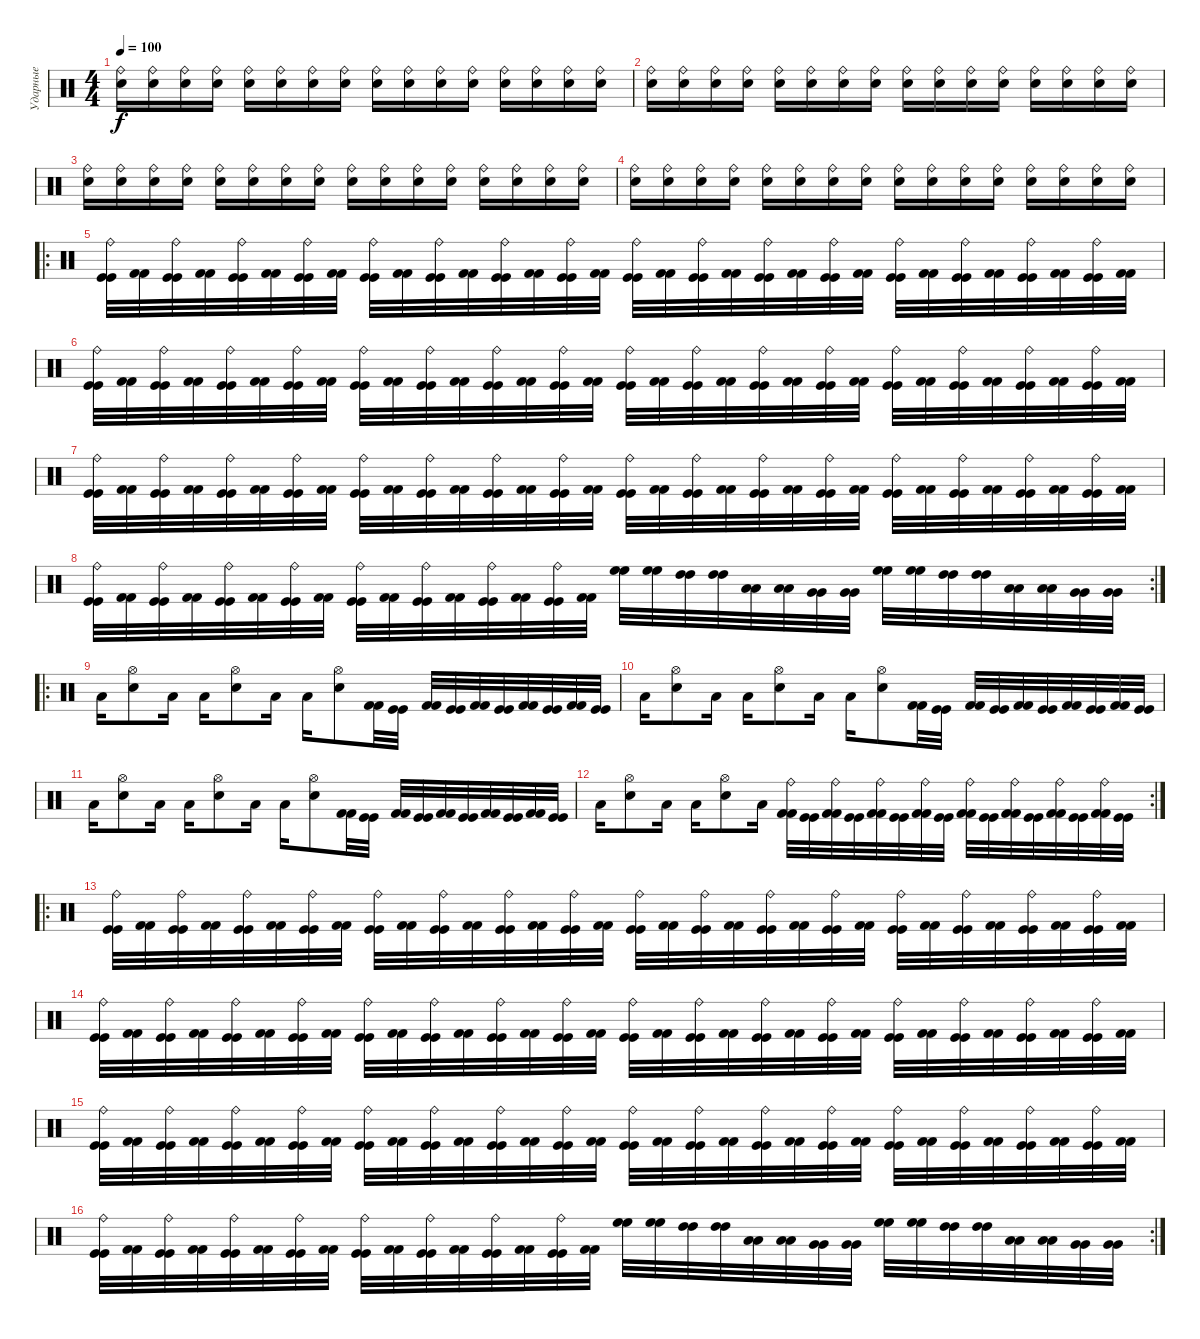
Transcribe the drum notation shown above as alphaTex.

\track ("Ударные" "Ударные") {instrument percussion}
\staff {score}
\articulation defaults
\ts (4 4)
\tempo 100
\clef neutral
\ks c
("Ride (bell)" "Electric Snare (hit)").16{dy f} ("Ride (bell)" "Electric Snare (hit)").16 ("Ride (bell)" "Electric Snare (hit)").16 ("Ride (bell)" "Electric Snare (hit)").16 ("Ride (bell)" "Electric Snare (hit)").16 ("Ride (bell)" "Electric Snare (hit)").16 ("Ride (bell)" "Electric Snare (hit)").16 ("Ride (bell)" "Electric Snare (hit)").16 ("Ride (bell)" "Electric Snare (hit)").16 ("Ride (bell)" "Electric Snare (hit)").16 ("Ride (bell)" "Electric Snare (hit)").16 ("Ride (bell)" "Electric Snare (hit)").16 ("Ride (bell)" "Electric Snare (hit)").16 ("Ride (bell)" "Electric Snare (hit)").16 ("Ride (bell)" "Electric Snare (hit)").16 ("Ride (bell)" "Electric Snare (hit)").16 |
("Ride (bell)" "Electric Snare (hit)").16 ("Ride (bell)" "Electric Snare (hit)").16 ("Ride (bell)" "Electric Snare (hit)").16 ("Ride (bell)" "Electric Snare (hit)").16 ("Ride (bell)" "Electric Snare (hit)").16 ("Ride (bell)" "Electric Snare (hit)").16 ("Ride (bell)" "Electric Snare (hit)").16 ("Ride (bell)" "Electric Snare (hit)").16 ("Ride (bell)" "Electric Snare (hit)").16 ("Ride (bell)" "Electric Snare (hit)").16 ("Ride (bell)" "Electric Snare (hit)").16 ("Ride (bell)" "Electric Snare (hit)").16 ("Ride (bell)" "Electric Snare (hit)").16 ("Ride (bell)" "Electric Snare (hit)").16 ("Ride (bell)" "Electric Snare (hit)").16 ("Ride (bell)" "Electric Snare (hit)").16 |
("Ride (bell)" "Electric Snare (hit)").16 ("Ride (bell)" "Electric Snare (hit)").16 ("Ride (bell)" "Electric Snare (hit)").16 ("Ride (bell)" "Electric Snare (hit)").16 ("Ride (bell)" "Electric Snare (hit)").16 ("Ride (bell)" "Electric Snare (hit)").16 ("Ride (bell)" "Electric Snare (hit)").16 ("Ride (bell)" "Electric Snare (hit)").16 ("Ride (bell)" "Electric Snare (hit)").16 ("Ride (bell)" "Electric Snare (hit)").16 ("Ride (bell)" "Electric Snare (hit)").16 ("Ride (bell)" "Electric Snare (hit)").16 ("Ride (bell)" "Electric Snare (hit)").16 ("Ride (bell)" "Electric Snare (hit)").16 ("Ride (bell)" "Electric Snare (hit)").16 ("Ride (bell)" "Electric Snare (hit)").16 |
("Ride (bell)" "Electric Snare (hit)").16 ("Ride (bell)" "Electric Snare (hit)").16 ("Ride (bell)" "Electric Snare (hit)").16 ("Ride (bell)" "Electric Snare (hit)").16 ("Ride (bell)" "Electric Snare (hit)").16 ("Ride (bell)" "Electric Snare (hit)").16 ("Ride (bell)" "Electric Snare (hit)").16 ("Ride (bell)" "Electric Snare (hit)").16 ("Ride (bell)" "Electric Snare (hit)").16 ("Ride (bell)" "Electric Snare (hit)").16 ("Ride (bell)" "Electric Snare (hit)").16 ("Ride (bell)" "Electric Snare (hit)").16 ("Ride (bell)" "Electric Snare (hit)").16 ("Ride (bell)" "Electric Snare (hit)").16 ("Ride (bell)" "Electric Snare (hit)").16 ("Ride (bell)" "Electric Snare (hit)").16 |
\ro
("Ride (bell)" "Kick (hit)" "Kick (hit)").32 ("Kick (hit) 2" "Kick (hit) 2").32 ("Ride (bell)" "Kick (hit)" "Kick (hit)").32 ("Kick (hit) 2" "Kick (hit) 2").32 ("Ride (bell)" "Kick (hit)" "Kick (hit)").32 ("Kick (hit) 2" "Kick (hit) 2").32 ("Ride (bell)" "Kick (hit)" "Kick (hit)").32 ("Kick (hit) 2" "Kick (hit) 2").32 ("Ride (bell)" "Kick (hit)" "Kick (hit)").32 ("Kick (hit) 2" "Kick (hit) 2").32 ("Ride (bell)" "Kick (hit)" "Kick (hit)").32 ("Kick (hit) 2" "Kick (hit) 2").32 ("Ride (bell)" "Kick (hit)" "Kick (hit)").32 ("Kick (hit) 2" "Kick (hit) 2").32 ("Ride (bell)" "Kick (hit)" "Kick (hit)").32 ("Kick (hit) 2" "Kick (hit) 2").32 ("Ride (bell)" "Kick (hit)" "Kick (hit)").32 ("Kick (hit) 2" "Kick (hit) 2").32 ("Ride (bell)" "Kick (hit)" "Kick (hit)").32 ("Kick (hit) 2" "Kick (hit) 2").32 ("Ride (bell)" "Kick (hit)" "Kick (hit)").32 ("Kick (hit) 2" "Kick (hit) 2").32 ("Ride (bell)" "Kick (hit)" "Kick (hit)").32 ("Kick (hit) 2" "Kick (hit) 2").32 ("Ride (bell)" "Kick (hit)" "Kick (hit)").32 ("Kick (hit) 2" "Kick (hit) 2").32 ("Ride (bell)" "Kick (hit)" "Kick (hit)").32 ("Kick (hit) 2" "Kick (hit) 2").32 ("Ride (bell)" "Kick (hit)" "Kick (hit)").32 ("Kick (hit) 2" "Kick (hit) 2").32 ("Ride (bell)" "Kick (hit)" "Kick (hit)").32 ("Kick (hit) 2" "Kick (hit) 2").32 |
("Ride (bell)" "Kick (hit)" "Kick (hit)").32 ("Kick (hit) 2" "Kick (hit) 2").32 ("Ride (bell)" "Kick (hit)" "Kick (hit)").32 ("Kick (hit) 2" "Kick (hit) 2").32 ("Ride (bell)" "Kick (hit)" "Kick (hit)").32 ("Kick (hit) 2" "Kick (hit) 2").32 ("Ride (bell)" "Kick (hit)" "Kick (hit)").32 ("Kick (hit) 2" "Kick (hit) 2").32 ("Ride (bell)" "Kick (hit)" "Kick (hit)").32 ("Kick (hit) 2" "Kick (hit) 2").32 ("Ride (bell)" "Kick (hit)" "Kick (hit)").32 ("Kick (hit) 2" "Kick (hit) 2").32 ("Ride (bell)" "Kick (hit)" "Kick (hit)").32 ("Kick (hit) 2" "Kick (hit) 2").32 ("Ride (bell)" "Kick (hit)" "Kick (hit)").32 ("Kick (hit) 2" "Kick (hit) 2").32 ("Ride (bell)" "Kick (hit)" "Kick (hit)").32 ("Kick (hit) 2" "Kick (hit) 2").32 ("Ride (bell)" "Kick (hit)" "Kick (hit)").32 ("Kick (hit) 2" "Kick (hit) 2").32 ("Ride (bell)" "Kick (hit)" "Kick (hit)").32 ("Kick (hit) 2" "Kick (hit) 2").32 ("Ride (bell)" "Kick (hit)" "Kick (hit)").32 ("Kick (hit) 2" "Kick (hit) 2").32 ("Ride (bell)" "Kick (hit)" "Kick (hit)").32 ("Kick (hit) 2" "Kick (hit) 2").32 ("Ride (bell)" "Kick (hit)" "Kick (hit)").32 ("Kick (hit) 2" "Kick (hit) 2").32 ("Ride (bell)" "Kick (hit)" "Kick (hit)").32 ("Kick (hit) 2" "Kick (hit) 2").32 ("Ride (bell)" "Kick (hit)" "Kick (hit)").32 ("Kick (hit) 2" "Kick (hit) 2").32 |
("Ride (bell)" "Kick (hit)" "Kick (hit)").32 ("Kick (hit) 2" "Kick (hit) 2").32 ("Ride (bell)" "Kick (hit)" "Kick (hit)").32 ("Kick (hit) 2" "Kick (hit) 2").32 ("Ride (bell)" "Kick (hit)" "Kick (hit)").32 ("Kick (hit) 2" "Kick (hit) 2").32 ("Ride (bell)" "Kick (hit)" "Kick (hit)").32 ("Kick (hit) 2" "Kick (hit) 2").32 ("Ride (bell)" "Kick (hit)" "Kick (hit)").32 ("Kick (hit) 2" "Kick (hit) 2").32 ("Ride (bell)" "Kick (hit)" "Kick (hit)").32 ("Kick (hit) 2" "Kick (hit) 2").32 ("Ride (bell)" "Kick (hit)" "Kick (hit)").32 ("Kick (hit) 2" "Kick (hit) 2").32 ("Ride (bell)" "Kick (hit)" "Kick (hit)").32 ("Kick (hit) 2" "Kick (hit) 2").32 ("Ride (bell)" "Kick (hit)" "Kick (hit)").32 ("Kick (hit) 2" "Kick (hit) 2").32 ("Ride (bell)" "Kick (hit)" "Kick (hit)").32 ("Kick (hit) 2" "Kick (hit) 2").32 ("Ride (bell)" "Kick (hit)" "Kick (hit)").32 ("Kick (hit) 2" "Kick (hit) 2").32 ("Ride (bell)" "Kick (hit)" "Kick (hit)").32 ("Kick (hit) 2" "Kick (hit) 2").32 ("Ride (bell)" "Kick (hit)" "Kick (hit)").32 ("Kick (hit) 2" "Kick (hit) 2").32 ("Ride (bell)" "Kick (hit)" "Kick (hit)").32 ("Kick (hit) 2" "Kick (hit) 2").32 ("Ride (bell)" "Kick (hit)" "Kick (hit)").32 ("Kick (hit) 2" "Kick (hit) 2").32 ("Ride (bell)" "Kick (hit)" "Kick (hit)").32 ("Kick (hit) 2" "Kick (hit) 2").32 |
\rc 2
("Ride (bell)" "Kick (hit)" "Kick (hit)").32 ("Kick (hit) 2" "Kick (hit) 2").32 ("Ride (bell)" "Kick (hit)" "Kick (hit)").32 ("Kick (hit) 2" "Kick (hit) 2").32 ("Ride (bell)" "Kick (hit)" "Kick (hit)").32 ("Kick (hit) 2" "Kick (hit) 2").32 ("Ride (bell)" "Kick (hit)" "Kick (hit)").32 ("Kick (hit) 2" "Kick (hit) 2").32 ("Ride (bell)" "Kick (hit)" "Kick (hit)").32 ("Kick (hit) 2" "Kick (hit) 2").32 ("Ride (bell)" "Kick (hit)" "Kick (hit)").32 ("Kick (hit) 2" "Kick (hit) 2").32 ("Ride (bell)" "Kick (hit)" "Kick (hit)").32 ("Kick (hit) 2" "Kick (hit) 2").32 ("Ride (bell)" "Kick (hit)" "Kick (hit)").32 ("Kick (hit) 2" "Kick (hit) 2").32 ("High Floor Tom (hit)" "High Floor Tom (hit)").32 ("High Floor Tom (hit)" "High Floor Tom (hit)").32 ("High Tom (hit)" "High Tom (hit)").32 ("High Tom (hit)" "High Tom (hit)").32 ("Low Tom (hit)" "Low Tom (hit)").32 ("Low Tom (hit)" "Low Tom (hit)").32 ("Very Low Tom (hit)" "Very Low Tom (hit)").32 ("Very Low Tom (hit)" "Very Low Tom (hit)").32 ("High Floor Tom (hit)" "High Floor Tom (hit)").32 ("High Floor Tom (hit)" "High Floor Tom (hit)").32 ("High Tom (hit)" "High Tom (hit)").32 ("High Tom (hit)" "High Tom (hit)").32 ("Low Tom (hit)" "Low Tom (hit)").32 ("Low Tom (hit)" "Low Tom (hit)").32 ("Very Low Tom (hit)" "Very Low Tom (hit)").32 ("Very Low Tom (hit)" "Very Low Tom (hit)").32 |
\ro "Low Tom (hit)".16
("Hi-Hat (open)" "Electric Snare (hit)").8 "Low Tom (hit)".16 "Low Tom (hit)".16 ("Hi-Hat (open)" "Electric Snare (hit)").8 "Low Tom (hit)".16 "Low Tom (hit)".16 ("Hi-Hat (open)" "Electric Snare (hit)").8 ("Kick (hit) 2" "Kick (hit) 2").32 ("Kick (hit)" "Kick (hit)").32 ("Kick (hit) 2" "Kick (hit) 2").32 ("Kick (hit)" "Kick (hit)").32 ("Kick (hit) 2" "Kick (hit) 2").32 ("Kick (hit)" "Kick (hit)").32 ("Kick (hit) 2" "Kick (hit) 2").32 ("Kick (hit)" "Kick (hit)").32 ("Kick (hit) 2" "Kick (hit) 2").32 ("Kick (hit)" "Kick (hit)").32 |
"Low Tom (hit)".16 ("Hi-Hat (open)" "Electric Snare (hit)").8 "Low Tom (hit)".16 "Low Tom (hit)".16 ("Hi-Hat (open)" "Electric Snare (hit)").8 "Low Tom (hit)".16 "Low Tom (hit)".16 ("Hi-Hat (open)" "Electric Snare (hit)").8 ("Kick (hit) 2" "Kick (hit) 2").32 ("Kick (hit)" "Kick (hit)").32 ("Kick (hit) 2" "Kick (hit) 2").32 ("Kick (hit)" "Kick (hit)").32 ("Kick (hit) 2" "Kick (hit) 2").32 ("Kick (hit)" "Kick (hit)").32 ("Kick (hit) 2" "Kick (hit) 2").32 ("Kick (hit)" "Kick (hit)").32 ("Kick (hit) 2" "Kick (hit) 2").32 ("Kick (hit)" "Kick (hit)").32 |
"Low Tom (hit)".16 ("Hi-Hat (open)" "Electric Snare (hit)").8 "Low Tom (hit)".16 "Low Tom (hit)".16 ("Hi-Hat (open)" "Electric Snare (hit)").8 "Low Tom (hit)".16 "Low Tom (hit)".16 ("Hi-Hat (open)" "Electric Snare (hit)").8 ("Kick (hit) 2" "Kick (hit) 2").32 ("Kick (hit)" "Kick (hit)").32 ("Kick (hit) 2" "Kick (hit) 2").32 ("Kick (hit)" "Kick (hit)").32 ("Kick (hit) 2" "Kick (hit) 2").32 ("Kick (hit)" "Kick (hit)").32 ("Kick (hit) 2" "Kick (hit) 2").32 ("Kick (hit)" "Kick (hit)").32 ("Kick (hit) 2" "Kick (hit) 2").32 ("Kick (hit)" "Kick (hit)").32 |
\rc 2 "Low Tom (hit)".16
("Hi-Hat (open)" "Electric Snare (hit)").8 "Low Tom (hit)".16 "Low Tom (hit)".16 ("Hi-Hat (open)" "Electric Snare (hit)").8 "Low Tom (hit)".16 ("Ride (bell)" "Kick (hit) 2" "Kick (hit) 2").32 ("Kick (hit)" "Kick (hit)").32 ("Ride (bell)" "Kick (hit) 2" "Kick (hit) 2").32 ("Kick (hit)" "Kick (hit)").32 ("Ride (bell)" "Kick (hit) 2" "Kick (hit) 2").32 ("Kick (hit)" "Kick (hit)").32 ("Ride (bell)" "Kick (hit) 2" "Kick (hit) 2").32 ("Kick (hit)" "Kick (hit)").32 ("Ride (bell)" "Kick (hit) 2" "Kick (hit) 2").32 ("Kick (hit)" "Kick (hit)").32 ("Ride (bell)" "Kick (hit) 2" "Kick (hit) 2").32 ("Kick (hit)" "Kick (hit)").32 ("Ride (bell)" "Kick (hit) 2" "Kick (hit) 2").32 ("Kick (hit)" "Kick (hit)").32 ("Ride (bell)" "Kick (hit) 2" "Kick (hit) 2").32 ("Kick (hit)" "Kick (hit)").32 |
\ro
("Ride (bell)" "Kick (hit)" "Kick (hit)").32 ("Kick (hit) 2" "Kick (hit) 2").32 ("Ride (bell)" "Kick (hit)" "Kick (hit)").32 ("Kick (hit) 2" "Kick (hit) 2").32 ("Ride (bell)" "Kick (hit)" "Kick (hit)").32 ("Kick (hit) 2" "Kick (hit) 2").32 ("Ride (bell)" "Kick (hit)" "Kick (hit)").32 ("Kick (hit) 2" "Kick (hit) 2").32 ("Ride (bell)" "Kick (hit)" "Kick (hit)").32 ("Kick (hit) 2" "Kick (hit) 2").32 ("Ride (bell)" "Kick (hit)" "Kick (hit)").32 ("Kick (hit) 2" "Kick (hit) 2").32 ("Ride (bell)" "Kick (hit)" "Kick (hit)").32 ("Kick (hit) 2" "Kick (hit) 2").32 ("Ride (bell)" "Kick (hit)" "Kick (hit)").32 ("Kick (hit) 2" "Kick (hit) 2").32 ("Ride (bell)" "Kick (hit)" "Kick (hit)").32 ("Kick (hit) 2" "Kick (hit) 2").32 ("Ride (bell)" "Kick (hit)" "Kick (hit)").32 ("Kick (hit) 2" "Kick (hit) 2").32 ("Ride (bell)" "Kick (hit)" "Kick (hit)").32 ("Kick (hit) 2" "Kick (hit) 2").32 ("Ride (bell)" "Kick (hit)" "Kick (hit)").32 ("Kick (hit) 2" "Kick (hit) 2").32 ("Ride (bell)" "Kick (hit)" "Kick (hit)").32 ("Kick (hit) 2" "Kick (hit) 2").32 ("Ride (bell)" "Kick (hit)" "Kick (hit)").32 ("Kick (hit) 2" "Kick (hit) 2").32 ("Ride (bell)" "Kick (hit)" "Kick (hit)").32 ("Kick (hit) 2" "Kick (hit) 2").32 ("Ride (bell)" "Kick (hit)" "Kick (hit)").32 ("Kick (hit) 2" "Kick (hit) 2").32 |
("Ride (bell)" "Kick (hit)" "Kick (hit)").32 ("Kick (hit) 2" "Kick (hit) 2").32 ("Ride (bell)" "Kick (hit)" "Kick (hit)").32 ("Kick (hit) 2" "Kick (hit) 2").32 ("Ride (bell)" "Kick (hit)" "Kick (hit)").32 ("Kick (hit) 2" "Kick (hit) 2").32 ("Ride (bell)" "Kick (hit)" "Kick (hit)").32 ("Kick (hit) 2" "Kick (hit) 2").32 ("Ride (bell)" "Kick (hit)" "Kick (hit)").32 ("Kick (hit) 2" "Kick (hit) 2").32 ("Ride (bell)" "Kick (hit)" "Kick (hit)").32 ("Kick (hit) 2" "Kick (hit) 2").32 ("Ride (bell)" "Kick (hit)" "Kick (hit)").32 ("Kick (hit) 2" "Kick (hit) 2").32 ("Ride (bell)" "Kick (hit)" "Kick (hit)").32 ("Kick (hit) 2" "Kick (hit) 2").32 ("Ride (bell)" "Kick (hit)" "Kick (hit)").32 ("Kick (hit) 2" "Kick (hit) 2").32 ("Ride (bell)" "Kick (hit)" "Kick (hit)").32 ("Kick (hit) 2" "Kick (hit) 2").32 ("Ride (bell)" "Kick (hit)" "Kick (hit)").32 ("Kick (hit) 2" "Kick (hit) 2").32 ("Ride (bell)" "Kick (hit)" "Kick (hit)").32 ("Kick (hit) 2" "Kick (hit) 2").32 ("Ride (bell)" "Kick (hit)" "Kick (hit)").32 ("Kick (hit) 2" "Kick (hit) 2").32 ("Ride (bell)" "Kick (hit)" "Kick (hit)").32 ("Kick (hit) 2" "Kick (hit) 2").32 ("Ride (bell)" "Kick (hit)" "Kick (hit)").32 ("Kick (hit) 2" "Kick (hit) 2").32 ("Ride (bell)" "Kick (hit)" "Kick (hit)").32 ("Kick (hit) 2" "Kick (hit) 2").32 |
("Ride (bell)" "Kick (hit)" "Kick (hit)").32 ("Kick (hit) 2" "Kick (hit) 2").32 ("Ride (bell)" "Kick (hit)" "Kick (hit)").32 ("Kick (hit) 2" "Kick (hit) 2").32 ("Ride (bell)" "Kick (hit)" "Kick (hit)").32 ("Kick (hit) 2" "Kick (hit) 2").32 ("Ride (bell)" "Kick (hit)" "Kick (hit)").32 ("Kick (hit) 2" "Kick (hit) 2").32 ("Ride (bell)" "Kick (hit)" "Kick (hit)").32 ("Kick (hit) 2" "Kick (hit) 2").32 ("Ride (bell)" "Kick (hit)" "Kick (hit)").32 ("Kick (hit) 2" "Kick (hit) 2").32 ("Ride (bell)" "Kick (hit)" "Kick (hit)").32 ("Kick (hit) 2" "Kick (hit) 2").32 ("Ride (bell)" "Kick (hit)" "Kick (hit)").32 ("Kick (hit) 2" "Kick (hit) 2").32 ("Ride (bell)" "Kick (hit)" "Kick (hit)").32 ("Kick (hit) 2" "Kick (hit) 2").32 ("Ride (bell)" "Kick (hit)" "Kick (hit)").32 ("Kick (hit) 2" "Kick (hit) 2").32 ("Ride (bell)" "Kick (hit)" "Kick (hit)").32 ("Kick (hit) 2" "Kick (hit) 2").32 ("Ride (bell)" "Kick (hit)" "Kick (hit)").32 ("Kick (hit) 2" "Kick (hit) 2").32 ("Ride (bell)" "Kick (hit)" "Kick (hit)").32 ("Kick (hit) 2" "Kick (hit) 2").32 ("Ride (bell)" "Kick (hit)" "Kick (hit)").32 ("Kick (hit) 2" "Kick (hit) 2").32 ("Ride (bell)" "Kick (hit)" "Kick (hit)").32 ("Kick (hit) 2" "Kick (hit) 2").32 ("Ride (bell)" "Kick (hit)" "Kick (hit)").32 ("Kick (hit) 2" "Kick (hit) 2").32 |
\rc 2
("Ride (bell)" "Kick (hit)" "Kick (hit)").32 ("Kick (hit) 2" "Kick (hit) 2").32 ("Ride (bell)" "Kick (hit)" "Kick (hit)").32 ("Kick (hit) 2" "Kick (hit) 2").32 ("Ride (bell)" "Kick (hit)" "Kick (hit)").32 ("Kick (hit) 2" "Kick (hit) 2").32 ("Ride (bell)" "Kick (hit)" "Kick (hit)").32 ("Kick (hit) 2" "Kick (hit) 2").32 ("Ride (bell)" "Kick (hit)" "Kick (hit)").32 ("Kick (hit) 2" "Kick (hit) 2").32 ("Ride (bell)" "Kick (hit)" "Kick (hit)").32 ("Kick (hit) 2" "Kick (hit) 2").32 ("Ride (bell)" "Kick (hit)" "Kick (hit)").32 ("Kick (hit) 2" "Kick (hit) 2").32 ("Ride (bell)" "Kick (hit)" "Kick (hit)").32 ("Kick (hit) 2" "Kick (hit) 2").32 ("High Floor Tom (hit)" "High Floor Tom (hit)").32 ("High Floor Tom (hit)" "High Floor Tom (hit)").32 ("High Tom (hit)" "High Tom (hit)").32 ("High Tom (hit)" "High Tom (hit)").32 ("Low Tom (hit)" "Low Tom (hit)").32 ("Low Tom (hit)" "Low Tom (hit)").32 ("Very Low Tom (hit)" "Very Low Tom (hit)").32 ("Very Low Tom (hit)" "Very Low Tom (hit)").32 ("High Floor Tom (hit)" "High Floor Tom (hit)").32 ("High Floor Tom (hit)" "High Floor Tom (hit)").32 ("High Tom (hit)" "High Tom (hit)").32 ("High Tom (hit)" "High Tom (hit)").32 ("Low Tom (hit)" "Low Tom (hit)").32 ("Low Tom (hit)" "Low Tom (hit)").32 ("Very Low Tom (hit)" "Very Low Tom (hit)").32 ("Very Low Tom (hit)" "Very Low Tom (hit)").32
